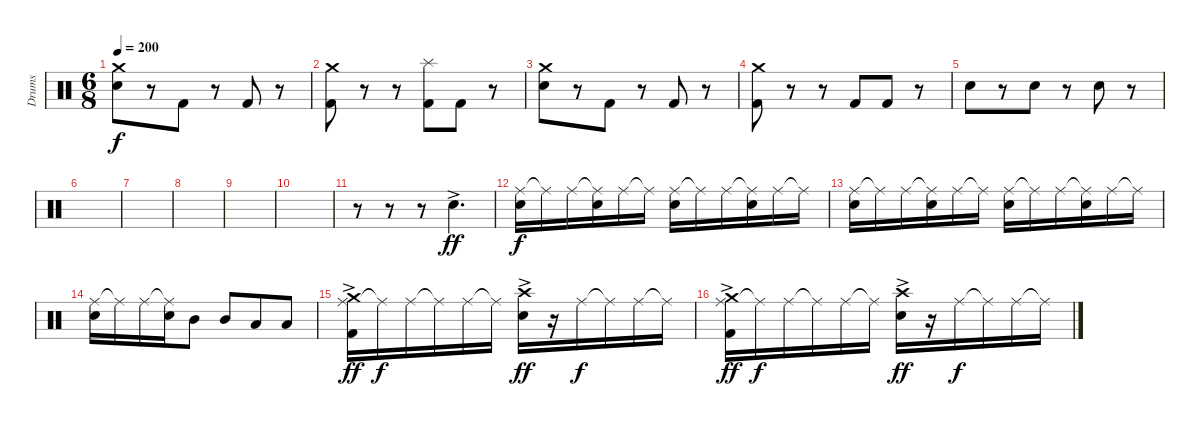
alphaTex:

\track ("Drums" "Drums") {instrument percussion}
\staff {score}
\articulation defaults
\ts (6 8)
\tempo 200
\clef neutral
\ks c
("Crash medium (hit)" "Electric Snare (hit)").8{dy f} r.8 "Kick (hit) 2".8 r.8 "Kick (hit) 2".8 r.8 |
("Crash medium (hit)" "Kick (hit) 2").8 r.8 r.8 ("Splash (hit)" "Kick (hit) 2").8 "Kick (hit) 2".8 r.8 |
("Crash medium (hit)" "Electric Snare (hit)").8 r.8 "Kick (hit) 2".8 r.8 "Kick (hit) 2".8 r.8 |
("Crash medium (hit)" "Kick (hit) 2").8 r.8 r.8 "Kick (hit) 2".8 "Kick (hit) 2".8 r.8 |
"Electric Snare (hit)".8 r.8 "Electric Snare (hit)".8 r.8 "Electric Snare (hit)".8 r.8 |
|
|
|
|
|
r.8 r.8 r.8 "Electric Snare (hit)"{ac}.4{d dy ff} |
("Ride (middle)" "Electric Snare (hit)").16{dy f} "Ride (middle)"{t}.16 "Ride (middle)".16 ("Ride (middle)"{t} "Electric Snare (hit)").16 "Ride (middle)".16 "Ride (middle)"{t}.16 ("Ride (middle)" "Electric Snare (hit)").16 "Ride (middle)"{t}.16 "Ride (middle)".16 ("Ride (middle)"{t} "Electric Snare (hit)").16 "Ride (middle)".16 "Ride (middle)"{t}.16 |
("Ride (middle)" "Electric Snare (hit)").16 "Ride (middle)"{t}.16 "Ride (middle)".16 ("Ride (middle)"{t} "Electric Snare (hit)").16 "Ride (middle)".16 "Ride (middle)"{t}.16 ("Ride (middle)" "Electric Snare (hit)").16 "Ride (middle)"{t}.16 "Ride (middle)".16 ("Ride (middle)"{t} "Electric Snare (hit)").16 "Ride (middle)".16 "Ride (middle)"{t}.16 |
("Ride (middle)" "Electric Snare (hit)").16 "Ride (middle)"{t}.16 "Ride (middle)".16 ("Ride (middle)"{t} "Electric Snare (hit)").16 "Mid Tom (hit)".8 "Mid Tom (hit)".8 "Low Tom (hit)".8 "Low Tom (hit)".8 |
("Ride (middle)" "Crash medium (hit)" "Kick (hit) 2"{ac}).16{dy ff} "Ride (middle)"{t}.16{dy f} "Ride (middle)".16 "Ride (middle)"{t}.16 "Ride (middle)".16 "Ride (middle)"{t}.16 ("Crash high (hit)" "Electric Snare (hit)"{ac}).16{dy ff} r.16 "Ride (middle)".16{dy f} "Ride (middle)"{t}.16 "Ride (middle)".16 "Ride (middle)"{t}.16 |
("Ride (middle)" "Crash medium (hit)" "Kick (hit) 2"{ac}).16{dy ff} "Ride (middle)"{t}.16{dy f} "Ride (middle)".16 "Ride (middle)"{t}.16 "Ride (middle)".16 "Ride (middle)"{t}.16 ("Crash high (hit)" "Electric Snare (hit)"{ac}).16{dy ff} r.16 "Ride (middle)".16{dy f} "Ride (middle)"{t}.16 "Ride (middle)".16 "Ride (middle)"{t}.16
